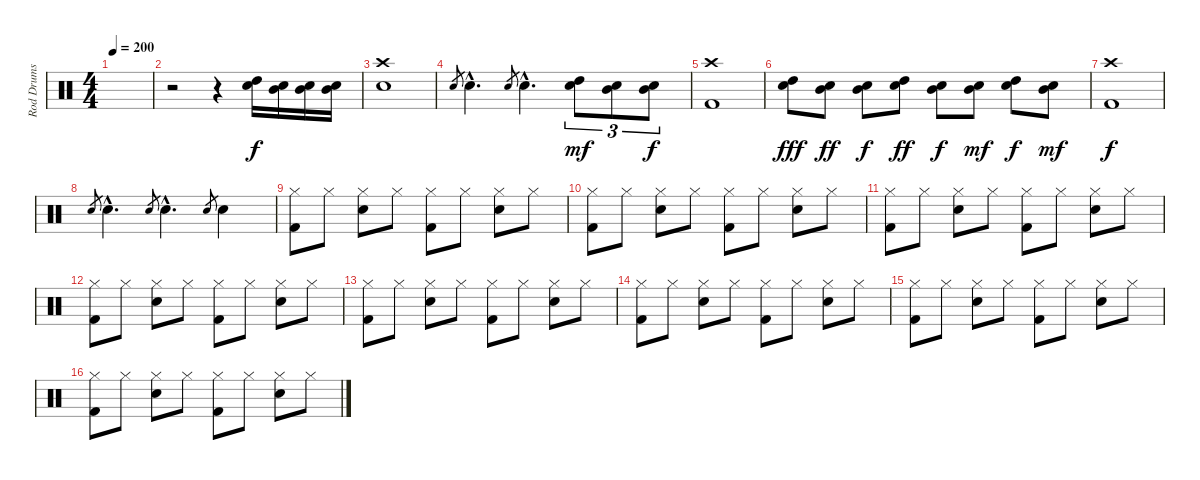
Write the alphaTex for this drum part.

\track ("Rod Drums" "Rod Drums") {instrument percussion}
\staff {score}
\articulation defaults
\ts (4 4)
\tempo 200
\clef neutral
\ks c
|
r.2 r.4 ("High Tom (hit)" "Snare (hit) 2").16 ("Mid Tom (hit)" "Snare (hit) 2").16 ("Mid Tom (hit)" "Snare (hit) 2").16 ("Mid Tom (hit)" "Snare (hit) 2").16 |
("Crash high (hit)" "Snare (hit) 2").1{dy f} |
"Snare (hit) 2".8{gr} "Snare (hit) 2"{hac}.4{d} "Snare (hit) 2".8{gr} "Snare (hit) 2"{hac}.4{d} ("High Tom (hit)" "Snare (hit) 2").8{tu (3 2) dy mf} ("Mid Tom (hit)" "Snare (hit) 2").8{tu (3 2)} ("Mid Tom (hit)" "Snare (hit) 2").8{tu (3 2) dy f} |
("Crash high (hit)" "Kick (hit) 2").1 |
("Snare (hit) 2" "High Tom (hit)").8{dy fff} ("Snare (hit) 2" "Mid Tom (hit)").8{dy ff} ("Snare (hit) 2" "Mid Tom (hit)").8{dy f} ("Snare (hit) 2" "High Tom (hit)").8{dy ff} ("Snare (hit) 2" "Mid Tom (hit)").8{dy f} ("Snare (hit) 2" "Mid Tom (hit)").8{dy mf} ("Snare (hit) 2" "High Tom (hit)").8{dy f} ("Snare (hit) 2" "Mid Tom (hit)").8{dy mf} |
("Crash high (hit)" "Kick (hit) 2").1{dy f} |
"Snare (hit) 2".8{gr} "Snare (hit) 2"{hac}.4{d} "Snare (hit) 2".8{gr} "Snare (hit) 2"{hac}.4{d} "Snare (hit) 2".8{gr} "Snare (hit) 2".4 |
("Kick (hit) 2" "Hi-Hat (closed)").8 "Hi-Hat (closed)".8 ("Snare (hit) 2" "Hi-Hat (closed)").8 "Hi-Hat (closed)".8 ("Kick (hit) 2" "Hi-Hat (closed)").8 "Hi-Hat (closed)".8 ("Snare (hit) 2" "Hi-Hat (closed)").8 "Hi-Hat (closed)".8 |
("Kick (hit) 2" "Hi-Hat (closed)").8 "Hi-Hat (closed)".8 ("Snare (hit) 2" "Hi-Hat (closed)").8 "Hi-Hat (closed)".8 ("Kick (hit) 2" "Hi-Hat (closed)").8 "Hi-Hat (closed)".8 ("Snare (hit) 2" "Hi-Hat (closed)").8 "Hi-Hat (closed)".8 |
("Kick (hit) 2" "Hi-Hat (closed)").8 "Hi-Hat (closed)".8 ("Snare (hit) 2" "Hi-Hat (closed)").8 "Hi-Hat (closed)".8 ("Kick (hit) 2" "Hi-Hat (closed)").8 "Hi-Hat (closed)".8 ("Snare (hit) 2" "Hi-Hat (closed)").8 "Hi-Hat (closed)".8 |
("Kick (hit) 2" "Hi-Hat (closed)").8 "Hi-Hat (closed)".8 ("Snare (hit) 2" "Hi-Hat (closed)").8 "Hi-Hat (closed)".8 ("Kick (hit) 2" "Hi-Hat (closed)").8 "Hi-Hat (closed)".8 ("Snare (hit) 2" "Hi-Hat (closed)").8 "Hi-Hat (closed)".8 |
("Kick (hit) 2" "Hi-Hat (closed)").8 "Hi-Hat (closed)".8 ("Snare (hit) 2" "Hi-Hat (closed)").8 "Hi-Hat (closed)".8 ("Kick (hit) 2" "Hi-Hat (closed)").8 "Hi-Hat (closed)".8 ("Snare (hit) 2" "Hi-Hat (closed)").8 "Hi-Hat (closed)".8 |
("Kick (hit) 2" "Hi-Hat (closed)").8 "Hi-Hat (closed)".8 ("Snare (hit) 2" "Hi-Hat (closed)").8 "Hi-Hat (closed)".8 ("Kick (hit) 2" "Hi-Hat (closed)").8 "Hi-Hat (closed)".8 ("Snare (hit) 2" "Hi-Hat (closed)").8 "Hi-Hat (closed)".8 |
("Kick (hit) 2" "Hi-Hat (closed)").8 "Hi-Hat (closed)".8 ("Snare (hit) 2" "Hi-Hat (closed)").8 "Hi-Hat (closed)".8 ("Kick (hit) 2" "Hi-Hat (closed)").8 "Hi-Hat (closed)".8 ("Snare (hit) 2" "Hi-Hat (closed)").8 "Hi-Hat (closed)".8 |
("Kick (hit) 2" "Hi-Hat (closed)").8 "Hi-Hat (closed)".8 ("Snare (hit) 2" "Hi-Hat (closed)").8 "Hi-Hat (closed)".8 ("Kick (hit) 2" "Hi-Hat (closed)").8 "Hi-Hat (closed)".8 ("Snare (hit) 2" "Hi-Hat (closed)").8 "Hi-Hat (closed)".8
